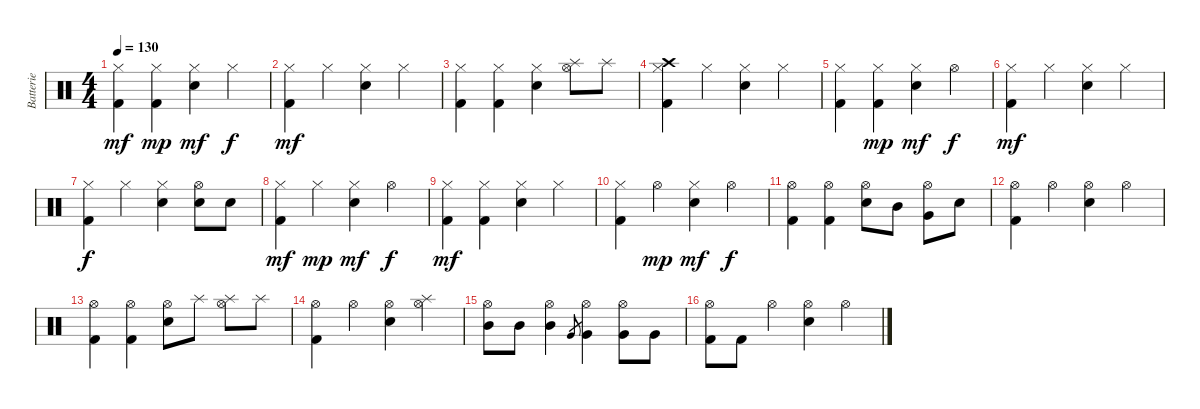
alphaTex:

\track ("Batterie" "Batterie") {instrument percussion}
\staff {score}
\articulation defaults
\ts (4 4)
\tempo 130
\clef neutral
\ks c
("Hi-Hat (closed)" "Kick (hit) 2").4{dy mf} ("Hi-Hat (closed)" "Kick (hit) 2").4{dy mp} ("Hi-Hat (closed)" "Electric Snare (hit)").4{dy mf} "Hi-Hat (closed)".4{dy f} |
("Hi-Hat (closed)" "Kick (hit) 2").4{dy mf} "Hi-Hat (closed)".4 ("Hi-Hat (closed)" "Electric Snare (hit)").4 "Hi-Hat (closed)".4 |
("Hi-Hat (closed)" "Kick (hit) 2").4 ("Hi-Hat (closed)" "Kick (hit) 2").4 ("Hi-Hat (closed)" "Electric Snare (hit)").4 ("Hi-Hat (open)" "Splash (hit)").8 "Splash (hit)".8 |
("Crash high (hit)" "Hi-Hat (closed)" "Kick (hit) 2").4 "Hi-Hat (closed)".4 ("Hi-Hat (closed)" "Electric Snare (hit)").4 "Hi-Hat (closed)".4 |
("Hi-Hat (closed)" "Kick (hit) 2").4 ("Hi-Hat (closed)" "Kick (hit) 2").4{dy mp} ("Hi-Hat (closed)" "Electric Snare (hit)").4{dy mf} "Hi-Hat (open)".4{dy f} |
("Hi-Hat (closed)" "Kick (hit) 2").4{dy mf} "Hi-Hat (closed)".4 ("Hi-Hat (closed)" "Electric Snare (hit)").4 "Hi-Hat (closed)".4 |
("Hi-Hat (closed)" "Kick (hit) 2").4{dy f} "Hi-Hat (closed)".4 ("Hi-Hat (closed)" "Electric Snare (hit)").4 ("Hi-Hat (open)" "Electric Snare (hit)").8 "Electric Snare (hit)".8 |
("Hi-Hat (closed)" "Kick (hit) 2").4{dy mf} "Hi-Hat (closed)".4{dy mp} ("Hi-Hat (closed)" "Electric Snare (hit)").4{dy mf} "Hi-Hat (open)".4{dy f} |
("Hi-Hat (closed)" "Kick (hit) 2").4{dy mf} ("Hi-Hat (closed)" "Kick (hit) 2").4 ("Hi-Hat (closed)" "Electric Snare (hit)").4 "Hi-Hat (closed)".4 |
("Hi-Hat (closed)" "Kick (hit) 2").4 "Hi-Hat (open)".4{dy mp} ("Hi-Hat (closed)" "Electric Snare (hit)").4{dy mf} "Hi-Hat (open)".4{dy f} |
("Hi-Hat (open)" "Kick (hit) 2").4 ("Hi-Hat (open)" "Kick (hit) 2").4 ("Hi-Hat (open)" "Electric Snare (hit)").8 "Mid Tom (hit)".8 ("Hi-Hat (open)" "Very Low Tom (hit)").8 "Electric Snare (hit)".8 |
("Hi-Hat (open)" "Kick (hit) 2").4 "Hi-Hat (open)".4 ("Hi-Hat (open)" "Electric Snare (hit)").4 "Hi-Hat (open)".4 |
("Hi-Hat (open)" "Kick (hit) 2").4 ("Hi-Hat (open)" "Kick (hit) 2").4 ("Hi-Hat (open)" "Electric Snare (hit)").8 "Splash (hit)".8 ("Hi-Hat (open)" "Splash (hit)").8 "Splash (hit)".8 |
("Hi-Hat (open)" "Kick (hit) 2").4 "Hi-Hat (open)".4 ("Hi-Hat (open)" "Electric Snare (hit)").4 ("Hi-Hat (open)" "Splash (hit)").4 |
("Hi-Hat (open)" "Mid Tom (hit)").8 "Mid Tom (hit)".8 ("Hi-Hat (open)" "Mid Tom (hit)").4 "Very Low Tom (hit)".8{gr} ("Hi-Hat (open)" "Very Low Tom (hit)").4 ("Hi-Hat (open)" "Very Low Tom (hit)").8 "Very Low Tom (hit)".8 |
("Hi-Hat (open)" "Kick (hit) 2").8 "Kick (hit) 2".8 "Hi-Hat (open)".4 ("Hi-Hat (open)" "Electric Snare (hit)").4 "Hi-Hat (open)".4
